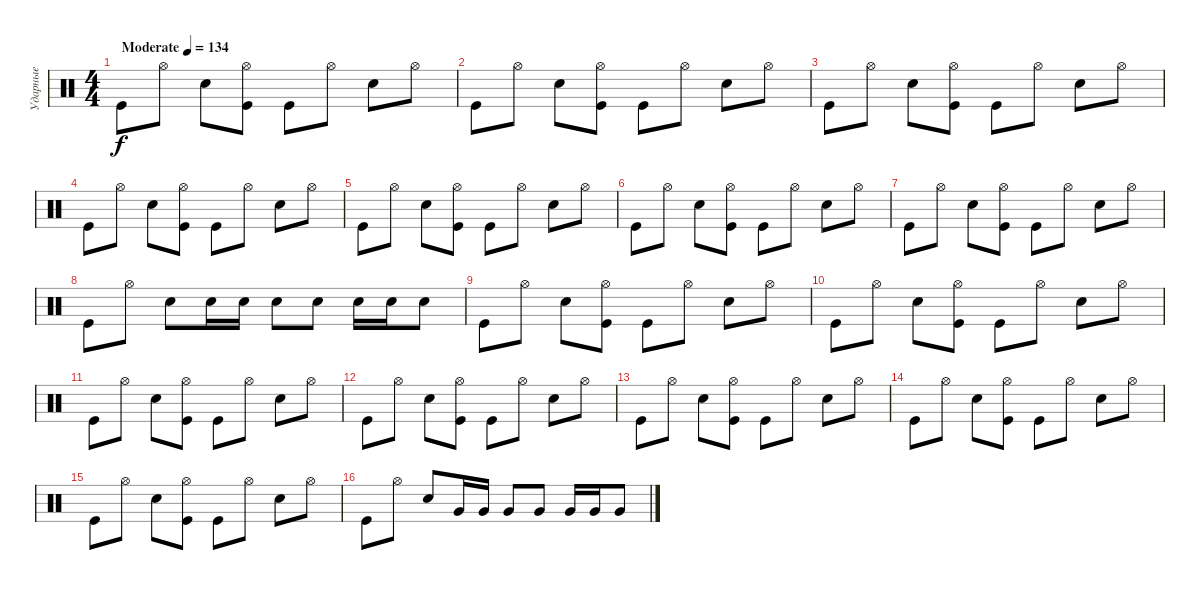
\track ("Ударные" "Ударные") {instrument percussion}
\staff {score}
\articulation defaults
\ts (4 4)
\tempo (134 "Moderate")
\clef neutral
\ks c "Kick (hit)".8{dy f} "Hi-Hat (open)".8 "Snare (hit) 2".8
("Hi-Hat (open)" "Kick (hit)").8 "Kick (hit)".8 "Hi-Hat (open)".8 "Snare (hit) 2".8 "Hi-Hat (open)".8 |
"Kick (hit)".8 "Hi-Hat (open)".8 "Snare (hit) 2".8 ("Hi-Hat (open)" "Kick (hit)").8 "Kick (hit)".8 "Hi-Hat (open)".8 "Snare (hit) 2".8 "Hi-Hat (open)".8 |
"Kick (hit)".8 "Hi-Hat (open)".8 "Snare (hit) 2".8 ("Hi-Hat (open)" "Kick (hit)").8 "Kick (hit)".8 "Hi-Hat (open)".8 "Snare (hit) 2".8 "Hi-Hat (open)".8 |
"Kick (hit)".8 "Hi-Hat (open)".8 "Snare (hit) 2".8 ("Hi-Hat (open)" "Kick (hit)").8 "Kick (hit)".8 "Hi-Hat (open)".8 "Snare (hit) 2".8 "Hi-Hat (open)".8 |
"Kick (hit)".8 "Hi-Hat (open)".8 "Snare (hit) 2".8 ("Hi-Hat (open)" "Kick (hit)").8 "Kick (hit)".8 "Hi-Hat (open)".8 "Snare (hit) 2".8 "Hi-Hat (open)".8 |
"Kick (hit)".8 "Hi-Hat (open)".8 "Snare (hit) 2".8 ("Hi-Hat (open)" "Kick (hit)").8 "Kick (hit)".8 "Hi-Hat (open)".8 "Snare (hit) 2".8 "Hi-Hat (open)".8 |
"Kick (hit)".8 "Hi-Hat (open)".8 "Snare (hit) 2".8 ("Hi-Hat (open)" "Kick (hit)").8 "Kick (hit)".8 "Hi-Hat (open)".8 "Snare (hit) 2".8 "Hi-Hat (open)".8 |
"Kick (hit)".8 "Hi-Hat (open)".8 "Snare (hit) 2".8 "Snare (hit) 2".16 "Snare (hit) 2".16 "Snare (hit) 2".8 "Snare (hit) 2".8 "Snare (hit) 2".16 "Snare (hit) 2".16 "Snare (hit) 2".8 |
"Kick (hit)".8 "Hi-Hat (open)".8 "Snare (hit) 2".8 ("Hi-Hat (open)" "Kick (hit)").8 "Kick (hit)".8 "Hi-Hat (open)".8 "Snare (hit) 2".8 "Hi-Hat (open)".8 |
"Kick (hit)".8 "Hi-Hat (open)".8 "Snare (hit) 2".8 ("Hi-Hat (open)" "Kick (hit)").8 "Kick (hit)".8 "Hi-Hat (open)".8 "Snare (hit) 2".8 "Hi-Hat (open)".8 |
"Kick (hit)".8 "Hi-Hat (open)".8 "Snare (hit) 2".8 ("Hi-Hat (open)" "Kick (hit)").8 "Kick (hit)".8 "Hi-Hat (open)".8 "Snare (hit) 2".8 "Hi-Hat (open)".8 |
"Kick (hit)".8 "Hi-Hat (open)".8 "Snare (hit) 2".8 ("Hi-Hat (open)" "Kick (hit)").8 "Kick (hit)".8 "Hi-Hat (open)".8 "Snare (hit) 2".8 "Hi-Hat (open)".8 |
"Kick (hit)".8 "Hi-Hat (open)".8 "Snare (hit) 2".8 ("Hi-Hat (open)" "Kick (hit)").8 "Kick (hit)".8 "Hi-Hat (open)".8 "Snare (hit) 2".8 "Hi-Hat (open)".8 |
"Kick (hit)".8 "Hi-Hat (open)".8 "Snare (hit) 2".8 ("Hi-Hat (open)" "Kick (hit)").8 "Kick (hit)".8 "Hi-Hat (open)".8 "Snare (hit) 2".8 "Hi-Hat (open)".8 |
"Kick (hit)".8 "Hi-Hat (open)".8 "Snare (hit) 2".8 ("Hi-Hat (open)" "Kick (hit)").8 "Kick (hit)".8 "Hi-Hat (open)".8 "Snare (hit) 2".8 "Hi-Hat (open)".8 |
"Kick (hit)".8 "Hi-Hat (open)".8 "Snare (hit) 2".8 "Very Low Tom (hit)".16 "Very Low Tom (hit)".16 "Very Low Tom (hit)".8 "Very Low Tom (hit)".8 "Very Low Tom (hit)".16 "Very Low Tom (hit)".16 "Very Low Tom (hit)".8
